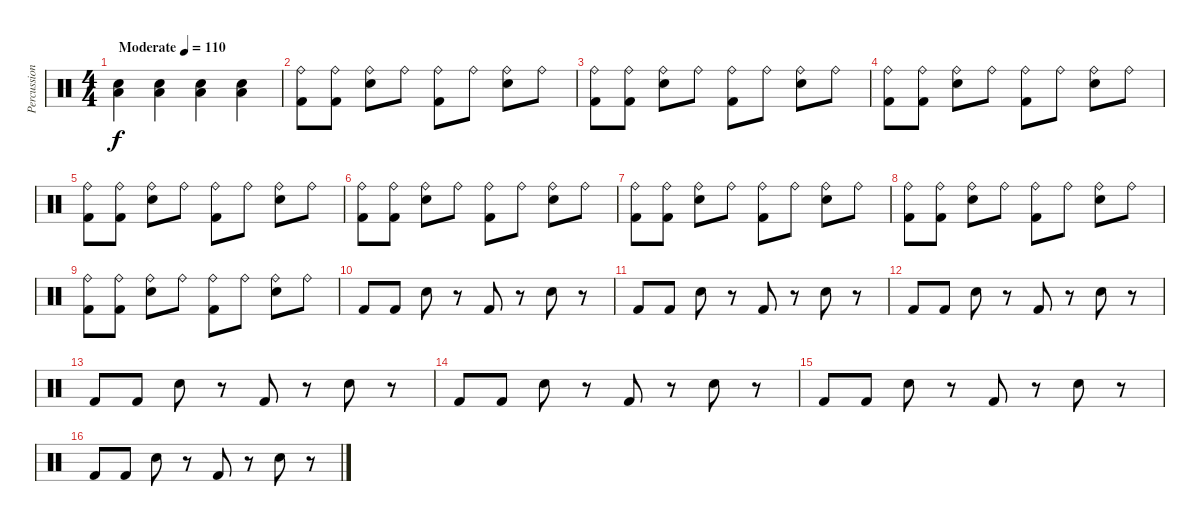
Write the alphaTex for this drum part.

\track ("Percussion" "Percussion") {instrument percussion}
\staff {score}
\articulation defaults
\ts (4 4)
\tempo (110 "Moderate")
\clef neutral
\ks c
("Snare (hit) 2" "Low Floor Tom (hit)").4{dy f} ("Snare (hit) 2" "Low Floor Tom (hit)").4 ("Snare (hit) 2" "Low Floor Tom (hit)").4 ("Snare (hit) 2" "Low Floor Tom (hit)").4 |
("Ride (bell)" "Kick (hit) 2").8 ("Ride (bell)" "Kick (hit) 2").8 ("Ride (bell)" "Snare (hit) 2").8 "Ride (bell)".8 ("Ride (bell)" "Kick (hit) 2").8 "Ride (bell)".8 ("Ride (bell)" "Snare (hit) 2").8 "Ride (bell)".8 |
("Ride (bell)" "Kick (hit) 2").8 ("Ride (bell)" "Kick (hit) 2").8 ("Ride (bell)" "Snare (hit) 2").8 "Ride (bell)".8 ("Ride (bell)" "Kick (hit) 2").8 "Ride (bell)".8 ("Ride (bell)" "Snare (hit) 2").8 "Ride (bell)".8 |
("Ride (bell)" "Kick (hit) 2").8 ("Ride (bell)" "Kick (hit) 2").8 ("Ride (bell)" "Snare (hit) 2").8 "Ride (bell)".8 ("Ride (bell)" "Kick (hit) 2").8 "Ride (bell)".8 ("Ride (bell)" "Snare (hit) 2").8 "Ride (bell)".8 |
("Ride (bell)" "Kick (hit) 2").8 ("Ride (bell)" "Kick (hit) 2").8 ("Ride (bell)" "Snare (hit) 2").8 "Ride (bell)".8 ("Ride (bell)" "Kick (hit) 2").8 "Ride (bell)".8 ("Ride (bell)" "Snare (hit) 2").8 "Ride (bell)".8 |
("Ride (bell)" "Kick (hit) 2").8 ("Ride (bell)" "Kick (hit) 2").8 ("Ride (bell)" "Snare (hit) 2").8 "Ride (bell)".8 ("Ride (bell)" "Kick (hit) 2").8 "Ride (bell)".8 ("Ride (bell)" "Snare (hit) 2").8 "Ride (bell)".8 |
("Ride (bell)" "Kick (hit) 2").8 ("Ride (bell)" "Kick (hit) 2").8 ("Ride (bell)" "Snare (hit) 2").8 "Ride (bell)".8 ("Ride (bell)" "Kick (hit) 2").8 "Ride (bell)".8 ("Ride (bell)" "Snare (hit) 2").8 "Ride (bell)".8 |
("Ride (bell)" "Kick (hit) 2").8 ("Ride (bell)" "Kick (hit) 2").8 ("Ride (bell)" "Snare (hit) 2").8 "Ride (bell)".8 ("Ride (bell)" "Kick (hit) 2").8 "Ride (bell)".8 ("Ride (bell)" "Snare (hit) 2").8 "Ride (bell)".8 |
("Ride (bell)" "Kick (hit) 2").8 ("Ride (bell)" "Kick (hit) 2").8 ("Ride (bell)" "Snare (hit) 2").8 "Ride (bell)".8 ("Ride (bell)" "Kick (hit) 2").8 "Ride (bell)".8 ("Ride (bell)" "Snare (hit) 2").8 "Ride (bell)".8 |
"Kick (hit) 2".8 "Kick (hit) 2".8 "Snare (hit) 2".8 r.8 "Kick (hit) 2".8 r.8 "Snare (hit) 2".8 r.8 |
"Kick (hit) 2".8 "Kick (hit) 2".8 "Snare (hit) 2".8 r.8 "Kick (hit) 2".8 r.8 "Snare (hit) 2".8 r.8 |
"Kick (hit) 2".8 "Kick (hit) 2".8 "Snare (hit) 2".8 r.8 "Kick (hit) 2".8 r.8 "Snare (hit) 2".8 r.8 |
"Kick (hit) 2".8 "Kick (hit) 2".8 "Snare (hit) 2".8 r.8 "Kick (hit) 2".8 r.8 "Snare (hit) 2".8 r.8 |
"Kick (hit) 2".8 "Kick (hit) 2".8 "Snare (hit) 2".8 r.8 "Kick (hit) 2".8 r.8 "Snare (hit) 2".8 r.8 |
"Kick (hit) 2".8 "Kick (hit) 2".8 "Snare (hit) 2".8 r.8 "Kick (hit) 2".8 r.8 "Snare (hit) 2".8 r.8 |
"Kick (hit) 2".8 "Kick (hit) 2".8 "Snare (hit) 2".8 r.8 "Kick (hit) 2".8 r.8 "Snare (hit) 2".8 r.8
